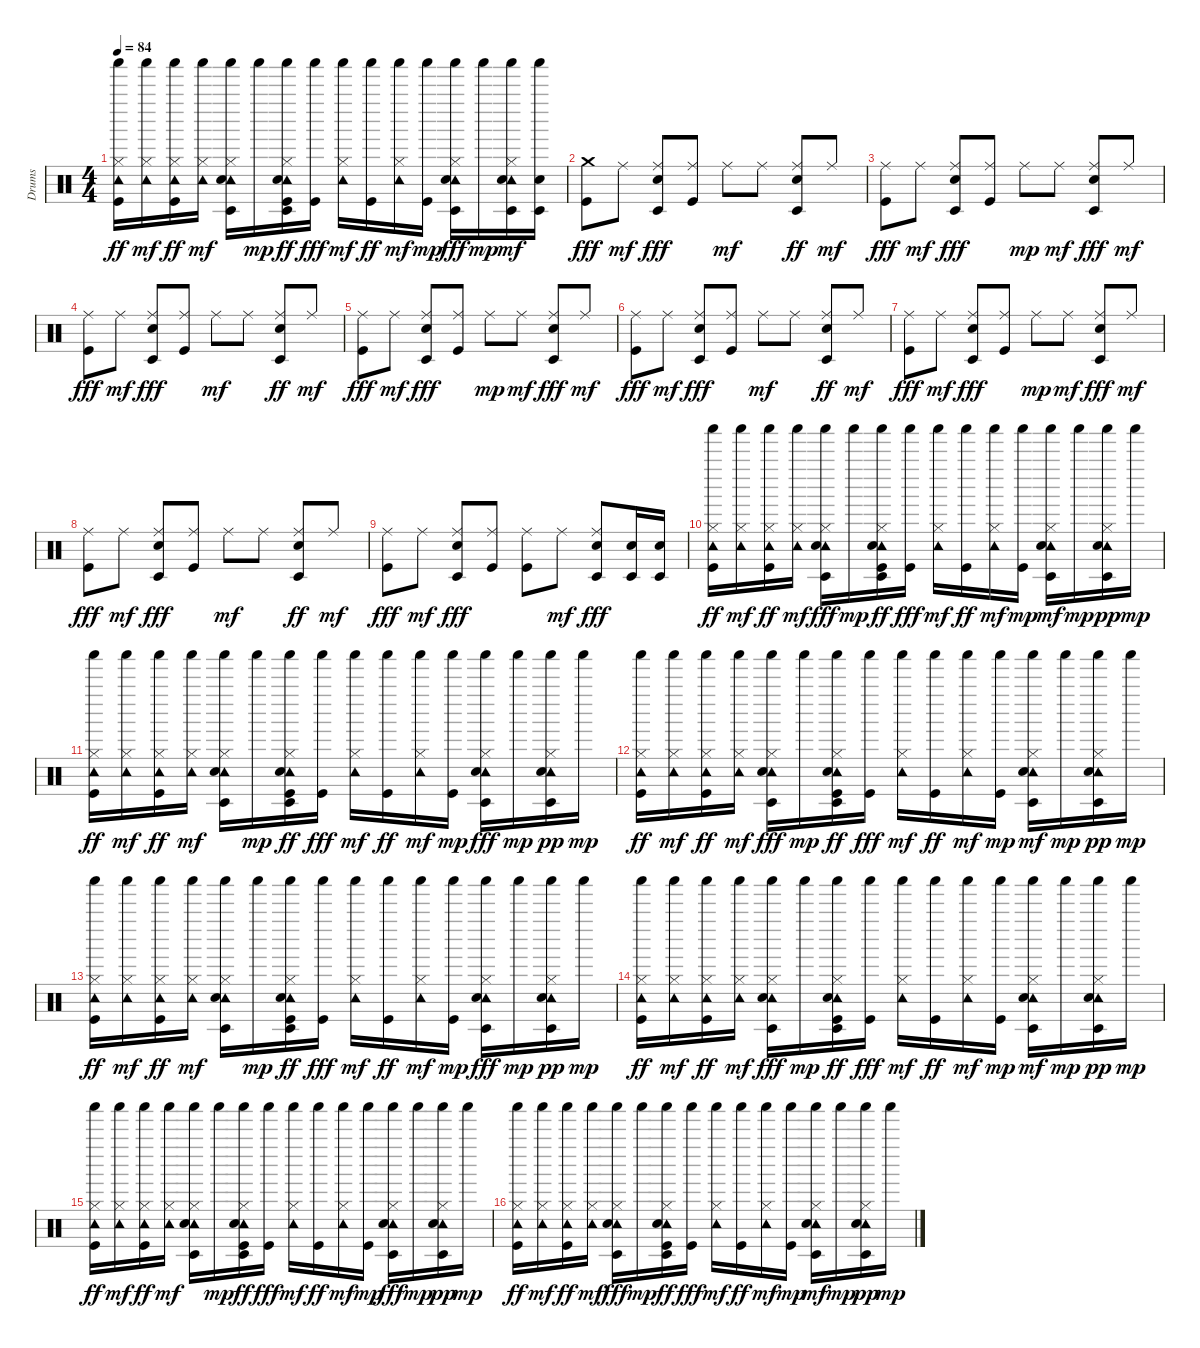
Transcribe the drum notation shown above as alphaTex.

\track ("Drums" "Drums") {instrument percussion}
\staff {score}
\articulation defaults
\ts (4 4)
\tempo 84
\clef neutral
\ks c
("Shaker (hit)" "Tambourine (hit)" "Hi-Hat (closed)" "Kick (hit)").16{dy ff} ("Shaker (hit)" "Tambourine (hit)" "Hi-Hat (closed)").16{dy mf} ("Shaker (hit)" "Tambourine (hit)" "Hi-Hat (closed)" "Kick (hit)").16{dy ff} ("Shaker (hit)" "Tambourine (hit)" "Hi-Hat (closed)").16{dy mf} ("Shaker (hit)" "Tambourine (hit)" "Hi-Hat (closed)" "Timbale low (hit)" "Snare (hit) 2").16 "Shaker (hit)".16{dy mp} ("Shaker (hit)" "Tambourine (hit)" "Hi-Hat (closed)" "Timbale low (hit)" "Snare (hit) 2" "Kick (hit)").16{dy ff} ("Shaker (hit)" "Kick (hit)").16{dy fff} ("Shaker (hit)" "Tambourine (hit)" "Hi-Hat (closed)").16{dy mf} ("Shaker (hit)" "Kick (hit)").16{dy ff} ("Shaker (hit)" "Tambourine (hit)" "Hi-Hat (closed)").16{dy mf} ("Shaker (hit)" "Kick (hit)").16{dy mp} ("Shaker (hit)" "Tambourine (hit)" "Hi-Hat (closed)" "Timbale low (hit)" "Snare (hit) 2").16{dy fff} "Shaker (hit)".16{dy mp} ("Shaker (hit)" "Tambourine (hit)" "Hi-Hat (closed)" "Timbale low (hit)" "Snare (hit) 2").16{dy mf} ("Shaker (hit)" "Timbale low (hit)" "Snare (hit) 2").16 |
("Crash medium (hit)" "Kick (hit)").8{dy fff} "Ride (middle)".8{dy mf} ("Ride (middle)" "Timbale low (hit)" "Snare (hit) 2").8{dy fff} ("Ride (middle)" "Kick (hit)").8 "Ride (middle)".8{dy mf} "Ride (middle)".8 ("Ride (middle)" "Timbale low (hit)" "Snare (hit) 2").8{dy ff} "Ride (middle)".8{dy mf} |
("Ride (middle)" "Kick (hit)").8{dy fff} "Ride (middle)".8{dy mf} ("Ride (middle)" "Timbale low (hit)" "Snare (hit) 2").8{dy fff} ("Ride (middle)" "Kick (hit)").8 "Ride (middle)".8{dy mp} "Ride (middle)".8{dy mf} ("Ride (middle)" "Timbale low (hit)" "Snare (hit) 2").8{dy fff} "Ride (middle)".8{dy mf} |
("Ride (middle)" "Kick (hit)").8{dy fff} "Ride (middle)".8{dy mf} ("Ride (middle)" "Timbale low (hit)" "Snare (hit) 2").8{dy fff} ("Ride (middle)" "Kick (hit)").8 "Ride (middle)".8{dy mf} "Ride (middle)".8 ("Ride (middle)" "Timbale low (hit)" "Snare (hit) 2").8{dy ff} "Ride (middle)".8{dy mf} |
("Ride (middle)" "Kick (hit)").8{dy fff} "Ride (middle)".8{dy mf} ("Ride (middle)" "Timbale low (hit)" "Snare (hit) 2").8{dy fff} ("Ride (middle)" "Kick (hit)").8 "Ride (middle)".8{dy mp} "Ride (middle)".8{dy mf} ("Ride (middle)" "Timbale low (hit)" "Snare (hit) 2").8{dy fff} "Ride (middle)".8{dy mf} |
("Ride (middle)" "Kick (hit)").8{dy fff} "Ride (middle)".8{dy mf} ("Ride (middle)" "Timbale low (hit)" "Snare (hit) 2").8{dy fff} ("Ride (middle)" "Kick (hit)").8 "Ride (middle)".8{dy mf} "Ride (middle)".8 ("Ride (middle)" "Timbale low (hit)" "Snare (hit) 2").8{dy ff} "Ride (middle)".8{dy mf} |
("Ride (middle)" "Kick (hit)").8{dy fff} "Ride (middle)".8{dy mf} ("Ride (middle)" "Timbale low (hit)" "Snare (hit) 2").8{dy fff} ("Ride (middle)" "Kick (hit)").8 "Ride (middle)".8{dy mp} "Ride (middle)".8{dy mf} ("Ride (middle)" "Timbale low (hit)" "Snare (hit) 2").8{dy fff} "Ride (middle)".8{dy mf} |
("Ride (middle)" "Kick (hit)").8{dy fff} "Ride (middle)".8{dy mf} ("Ride (middle)" "Timbale low (hit)" "Snare (hit) 2").8{dy fff} ("Ride (middle)" "Kick (hit)").8 "Ride (middle)".8{dy mf} "Ride (middle)".8 ("Ride (middle)" "Timbale low (hit)" "Snare (hit) 2").8{dy ff} "Ride (middle)".8{dy mf} |
("Ride (middle)" "Kick (hit)").8{dy fff} "Ride (middle)".8{dy mf} ("Ride (middle)" "Timbale low (hit)" "Snare (hit) 2").8{dy fff} ("Ride (middle)" "Kick (hit)").8 ("Ride (middle)" "Kick (hit)").8 "Ride (middle)".8{dy mf} ("Ride (middle)" "Timbale low (hit)" "Snare (hit) 2").8{dy fff} ("Timbale low (hit)" "Snare (hit) 2").16 ("Timbale low (hit)" "Snare (hit) 2").16 |
("Shaker (hit)" "Tambourine (hit)" "Hi-Hat (closed)" "Kick (hit)").16{dy ff} ("Shaker (hit)" "Tambourine (hit)" "Hi-Hat (closed)").16{dy mf} ("Shaker (hit)" "Tambourine (hit)" "Hi-Hat (closed)" "Kick (hit)").16{dy ff} ("Shaker (hit)" "Tambourine (hit)" "Hi-Hat (closed)").16{dy mf} ("Shaker (hit)" "Tambourine (hit)" "Hi-Hat (closed)" "Timbale low (hit)" "Snare (hit) 2").16{dy fff} "Shaker (hit)".16{dy mp} ("Shaker (hit)" "Tambourine (hit)" "Hi-Hat (closed)" "Timbale low (hit)" "Snare (hit) 2" "Kick (hit)").16{dy ff} ("Shaker (hit)" "Kick (hit)").16{dy fff} ("Shaker (hit)" "Tambourine (hit)" "Hi-Hat (closed)").16{dy mf} ("Shaker (hit)" "Kick (hit)").16{dy ff} ("Shaker (hit)" "Tambourine (hit)" "Hi-Hat (closed)").16{dy mf} ("Shaker (hit)" "Kick (hit)").16{dy mp} ("Shaker (hit)" "Tambourine (hit)" "Hi-Hat (closed)" "Timbale low (hit)" "Snare (hit) 2").16{dy mf} "Shaker (hit)".16{dy mp} ("Shaker (hit)" "Tambourine (hit)" "Hi-Hat (closed)" "Timbale low (hit)" "Snare (hit) 2").16{dy pp} "Shaker (hit)".16{dy mp} |
("Shaker (hit)" "Tambourine (hit)" "Hi-Hat (closed)" "Kick (hit)").16{dy ff} ("Shaker (hit)" "Tambourine (hit)" "Hi-Hat (closed)").16{dy mf} ("Shaker (hit)" "Tambourine (hit)" "Hi-Hat (closed)" "Kick (hit)").16{dy ff} ("Shaker (hit)" "Tambourine (hit)" "Hi-Hat (closed)").16{dy mf} ("Shaker (hit)" "Tambourine (hit)" "Hi-Hat (closed)" "Timbale low (hit)" "Snare (hit) 2").16 "Shaker (hit)".16{dy mp} ("Shaker (hit)" "Tambourine (hit)" "Hi-Hat (closed)" "Timbale low (hit)" "Snare (hit) 2" "Kick (hit)").16{dy ff} ("Shaker (hit)" "Kick (hit)").16{dy fff} ("Shaker (hit)" "Tambourine (hit)" "Hi-Hat (closed)").16{dy mf} ("Shaker (hit)" "Kick (hit)").16{dy ff} ("Shaker (hit)" "Tambourine (hit)" "Hi-Hat (closed)").16{dy mf} ("Shaker (hit)" "Kick (hit)").16{dy mp} ("Shaker (hit)" "Tambourine (hit)" "Hi-Hat (closed)" "Timbale low (hit)" "Snare (hit) 2").16{dy fff} "Shaker (hit)".16{dy mp} ("Shaker (hit)" "Tambourine (hit)" "Hi-Hat (closed)" "Timbale low (hit)" "Snare (hit) 2").16{dy pp} "Shaker (hit)".16{dy mp} |
("Shaker (hit)" "Tambourine (hit)" "Hi-Hat (closed)" "Kick (hit)").16{dy ff} ("Shaker (hit)" "Tambourine (hit)" "Hi-Hat (closed)").16{dy mf} ("Shaker (hit)" "Tambourine (hit)" "Hi-Hat (closed)" "Kick (hit)").16{dy ff} ("Shaker (hit)" "Tambourine (hit)" "Hi-Hat (closed)").16{dy mf} ("Shaker (hit)" "Tambourine (hit)" "Hi-Hat (closed)" "Timbale low (hit)" "Snare (hit) 2").16{dy fff} "Shaker (hit)".16{dy mp} ("Shaker (hit)" "Tambourine (hit)" "Hi-Hat (closed)" "Timbale low (hit)" "Snare (hit) 2" "Kick (hit)").16{dy ff} ("Shaker (hit)" "Kick (hit)").16{dy fff} ("Shaker (hit)" "Tambourine (hit)" "Hi-Hat (closed)").16{dy mf} ("Shaker (hit)" "Kick (hit)").16{dy ff} ("Shaker (hit)" "Tambourine (hit)" "Hi-Hat (closed)").16{dy mf} ("Shaker (hit)" "Kick (hit)").16{dy mp} ("Shaker (hit)" "Tambourine (hit)" "Hi-Hat (closed)" "Timbale low (hit)" "Snare (hit) 2").16{dy mf} "Shaker (hit)".16{dy mp} ("Shaker (hit)" "Tambourine (hit)" "Hi-Hat (closed)" "Timbale low (hit)" "Snare (hit) 2").16{dy pp} "Shaker (hit)".16{dy mp} |
("Shaker (hit)" "Tambourine (hit)" "Hi-Hat (closed)" "Kick (hit)").16{dy ff} ("Shaker (hit)" "Tambourine (hit)" "Hi-Hat (closed)").16{dy mf} ("Shaker (hit)" "Tambourine (hit)" "Hi-Hat (closed)" "Kick (hit)").16{dy ff} ("Shaker (hit)" "Tambourine (hit)" "Hi-Hat (closed)").16{dy mf} ("Shaker (hit)" "Tambourine (hit)" "Hi-Hat (closed)" "Timbale low (hit)" "Snare (hit) 2").16 "Shaker (hit)".16{dy mp} ("Shaker (hit)" "Tambourine (hit)" "Hi-Hat (closed)" "Timbale low (hit)" "Snare (hit) 2" "Kick (hit)").16{dy ff} ("Shaker (hit)" "Kick (hit)").16{dy fff} ("Shaker (hit)" "Tambourine (hit)" "Hi-Hat (closed)").16{dy mf} ("Shaker (hit)" "Kick (hit)").16{dy ff} ("Shaker (hit)" "Tambourine (hit)" "Hi-Hat (closed)").16{dy mf} ("Shaker (hit)" "Kick (hit)").16{dy mp} ("Shaker (hit)" "Tambourine (hit)" "Hi-Hat (closed)" "Timbale low (hit)" "Snare (hit) 2").16{dy fff} "Shaker (hit)".16{dy mp} ("Shaker (hit)" "Tambourine (hit)" "Hi-Hat (closed)" "Timbale low (hit)" "Snare (hit) 2").16{dy pp} "Shaker (hit)".16{dy mp} |
("Shaker (hit)" "Tambourine (hit)" "Hi-Hat (closed)" "Kick (hit)").16{dy ff} ("Shaker (hit)" "Tambourine (hit)" "Hi-Hat (closed)").16{dy mf} ("Shaker (hit)" "Tambourine (hit)" "Hi-Hat (closed)" "Kick (hit)").16{dy ff} ("Shaker (hit)" "Tambourine (hit)" "Hi-Hat (closed)").16{dy mf} ("Shaker (hit)" "Tambourine (hit)" "Hi-Hat (closed)" "Timbale low (hit)" "Snare (hit) 2").16{dy fff} "Shaker (hit)".16{dy mp} ("Shaker (hit)" "Tambourine (hit)" "Hi-Hat (closed)" "Timbale low (hit)" "Snare (hit) 2" "Kick (hit)").16{dy ff} ("Shaker (hit)" "Kick (hit)").16{dy fff} ("Shaker (hit)" "Tambourine (hit)" "Hi-Hat (closed)").16{dy mf} ("Shaker (hit)" "Kick (hit)").16{dy ff} ("Shaker (hit)" "Tambourine (hit)" "Hi-Hat (closed)").16{dy mf} ("Shaker (hit)" "Kick (hit)").16{dy mp} ("Shaker (hit)" "Tambourine (hit)" "Hi-Hat (closed)" "Timbale low (hit)" "Snare (hit) 2").16{dy mf} "Shaker (hit)".16{dy mp} ("Shaker (hit)" "Tambourine (hit)" "Hi-Hat (closed)" "Timbale low (hit)" "Snare (hit) 2").16{dy pp} "Shaker (hit)".16{dy mp} |
("Shaker (hit)" "Tambourine (hit)" "Hi-Hat (closed)" "Kick (hit)").16{dy ff} ("Shaker (hit)" "Tambourine (hit)" "Hi-Hat (closed)").16{dy mf} ("Shaker (hit)" "Tambourine (hit)" "Hi-Hat (closed)" "Kick (hit)").16{dy ff} ("Shaker (hit)" "Tambourine (hit)" "Hi-Hat (closed)").16{dy mf} ("Shaker (hit)" "Tambourine (hit)" "Hi-Hat (closed)" "Timbale low (hit)" "Snare (hit) 2").16 "Shaker (hit)".16{dy mp} ("Shaker (hit)" "Tambourine (hit)" "Hi-Hat (closed)" "Timbale low (hit)" "Snare (hit) 2" "Kick (hit)").16{dy ff} ("Shaker (hit)" "Kick (hit)").16{dy fff} ("Shaker (hit)" "Tambourine (hit)" "Hi-Hat (closed)").16{dy mf} ("Shaker (hit)" "Kick (hit)").16{dy ff} ("Shaker (hit)" "Tambourine (hit)" "Hi-Hat (closed)").16{dy mf} ("Shaker (hit)" "Kick (hit)").16{dy mp} ("Shaker (hit)" "Tambourine (hit)" "Hi-Hat (closed)" "Timbale low (hit)" "Snare (hit) 2").16{dy fff} "Shaker (hit)".16{dy mp} ("Shaker (hit)" "Tambourine (hit)" "Hi-Hat (closed)" "Timbale low (hit)" "Snare (hit) 2").16{dy pp} "Shaker (hit)".16{dy mp} |
("Shaker (hit)" "Tambourine (hit)" "Hi-Hat (closed)" "Kick (hit)").16{dy ff} ("Shaker (hit)" "Tambourine (hit)" "Hi-Hat (closed)").16{dy mf} ("Shaker (hit)" "Tambourine (hit)" "Hi-Hat (closed)" "Kick (hit)").16{dy ff} ("Shaker (hit)" "Tambourine (hit)" "Hi-Hat (closed)").16{dy mf} ("Shaker (hit)" "Tambourine (hit)" "Hi-Hat (closed)" "Timbale low (hit)" "Snare (hit) 2").16{dy fff} "Shaker (hit)".16{dy mp} ("Shaker (hit)" "Tambourine (hit)" "Hi-Hat (closed)" "Timbale low (hit)" "Snare (hit) 2" "Kick (hit)").16{dy ff} ("Shaker (hit)" "Kick (hit)").16{dy fff} ("Shaker (hit)" "Tambourine (hit)" "Hi-Hat (closed)").16{dy mf} ("Shaker (hit)" "Kick (hit)").16{dy ff} ("Shaker (hit)" "Tambourine (hit)" "Hi-Hat (closed)").16{dy mf} ("Shaker (hit)" "Kick (hit)").16{dy mp} ("Shaker (hit)" "Tambourine (hit)" "Hi-Hat (closed)" "Timbale low (hit)" "Snare (hit) 2").16{dy mf} "Shaker (hit)".16{dy mp} ("Shaker (hit)" "Tambourine (hit)" "Hi-Hat (closed)" "Timbale low (hit)" "Snare (hit) 2").16{dy pp} "Shaker (hit)".16{dy mp}
